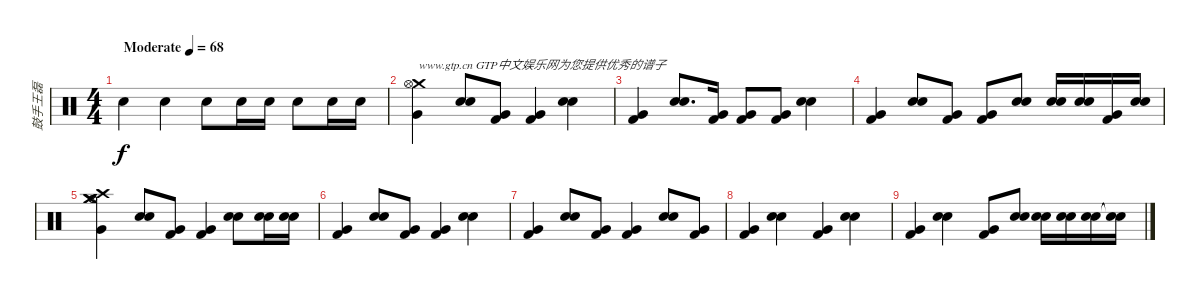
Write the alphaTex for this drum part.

\track ("鼓手王磊" "鼓手王磊") {instrument percussion}
\staff {score}
\articulation defaults
\ts (4 4)
\tempo (68 "Moderate")
\clef neutral
\ks c "Metronome (bell)".4{dy f} "Metronome (bell)".4 "Metronome (bell)".8 "Metronome (bell)".16 "Metronome (bell)".16 "Metronome (bell)".8 "Metronome (bell)".16 "Metronome (bell)".16
|
("Crash medium (hit)" "Very Low Tom (hit)" "Hi-Hat (open)").4{txt "www.gtp.cn GTP中文娱乐网为您提供优秀的谱子"} ("Electric Snare (hit)" "Electric Snare (hit)").8 ("Very Low Tom (hit)" "Kick (hit) 2").8 ("Very Low Tom (hit)" "Kick (hit) 2").4 ("Electric Snare (hit)" "Electric Snare (hit)").4 |
("Very Low Tom (hit)" "Kick (hit) 2").4 ("Electric Snare (hit)" "Electric Snare (hit)").8{d} ("Very Low Tom (hit)" "Kick (hit) 2").16 ("Very Low Tom (hit)" "Kick (hit) 2").8 ("Very Low Tom (hit)" "Kick (hit) 2").8 ("Electric Snare (hit)" "Electric Snare (hit)").4 |
("Very Low Tom (hit)" "Kick (hit) 2").4 ("Electric Snare (hit)" "Electric Snare (hit)").8 ("Very Low Tom (hit)" "Kick (hit) 2").8 ("Very Low Tom (hit)" "Kick (hit) 2").8 ("Electric Snare (hit)" "Electric Snare (hit)").8 ("Electric Snare (hit)" "Electric Snare (hit)").16 ("Electric Snare (hit)" "Electric Snare (hit)").16 ("Very Low Tom (hit)" "Kick (hit) 2").16 ("Electric Snare (hit)" "Electric Snare (hit)").16 |
("Crash medium (hit)" "Crash medium (hit)" "Very Low Tom (hit)" "Crash high (hit)" "Hi-Hat (open)" "Hi-Hat (open)").4 ("Electric Snare (hit)" "Electric Snare (hit)").8 ("Very Low Tom (hit)" "Kick (hit) 2").8 ("Very Low Tom (hit)" "Kick (hit) 2").4 ("Electric Snare (hit)" "Electric Snare (hit)").8 ("Electric Snare (hit)" "Electric Snare (hit)").16 ("Electric Snare (hit)" "Electric Snare (hit)").16 |
("Very Low Tom (hit)" "Kick (hit) 2").4 ("Electric Snare (hit)" "Electric Snare (hit)").8 ("Very Low Tom (hit)" "Kick (hit) 2").8 ("Very Low Tom (hit)" "Kick (hit) 2").4 ("Electric Snare (hit)" "Electric Snare (hit)").4 |
("Very Low Tom (hit)" "Kick (hit) 2").4 ("Electric Snare (hit)" "Electric Snare (hit)").8 ("Very Low Tom (hit)" "Kick (hit) 2").8 ("Very Low Tom (hit)" "Kick (hit) 2").4 ("Electric Snare (hit)" "Electric Snare (hit)").8 ("Very Low Tom (hit)" "Kick (hit) 2").8 |
("Very Low Tom (hit)" "Kick (hit) 2").4 ("Electric Snare (hit)" "Electric Snare (hit)").4 ("Very Low Tom (hit)" "Kick (hit) 2").4 ("Electric Snare (hit)" "Electric Snare (hit)").4 |
("Very Low Tom (hit)" "Kick (hit) 2").4 ("Electric Snare (hit)" "Electric Snare (hit)").4 ("Very Low Tom (hit)" "Kick (hit) 2").8 ("Electric Snare (hit)" "Electric Snare (hit)").8 ("Electric Snare (hit)" "Electric Snare (hit)").16 ("Electric Snare (hit)" "Electric Snare (hit)").16 ("Electric Snare (hit)" "Electric Snare (hit)").16 ("Snare (hit)"{t} "Snare (hit)"{t}).16
